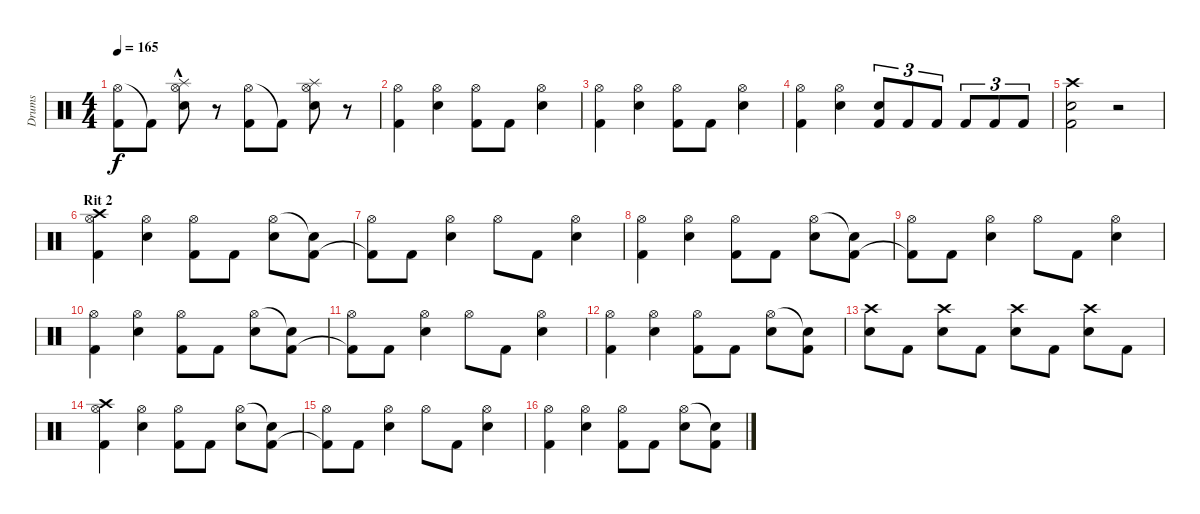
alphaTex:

\track ("Drums" "Drums") {instrument percussion}
\staff {score}
\articulation defaults
\ts (4 4)
\tempo 165
\clef neutral
\ks c
("Hi-Hat (open)" "Kick (hit) 2").8{dy f} "Kick (hit) 2"{t}.8 ("Splash (hit)" "Hi-Hat (open)" "Snare (hit) 2"{hac}).8 r.8 ("Hi-Hat (open)" "Kick (hit) 2").8 "Kick (hit) 2"{t}.8 ("Splash (hit)" "Hi-Hat (open)" "Snare (hit) 2").8 r.8 |
("Kick (hit) 2" "Hi-Hat (open)").4 ("Hi-Hat (open)" "Snare (hit) 2").4 ("Hi-Hat (open)" "Kick (hit) 2").8 "Kick (hit) 2".8 ("Hi-Hat (open)" "Snare (hit) 2").4 |
("Kick (hit) 2" "Hi-Hat (open)").4 ("Hi-Hat (open)" "Snare (hit) 2").4 ("Hi-Hat (open)" "Kick (hit) 2").8 "Kick (hit) 2".8 ("Hi-Hat (open)" "Snare (hit) 2").4 |
("Kick (hit) 2" "Hi-Hat (open)").4 ("Hi-Hat (open)" "Snare (hit) 2").4 ("Snare (hit) 2" "Kick (hit) 2").8{tu (3 2)} "Kick (hit) 2".8{tu (3 2)} "Kick (hit) 2".8{tu (3 2)} "Kick (hit) 2".8{tu (3 2)} "Kick (hit) 2".8{tu (3 2)} "Kick (hit) 2".8{tu (3 2)} |
("Crash high (hit)" "Snare (hit) 2" "Kick (hit) 2").2 r.2 |
\section ("" "Rit 2")
("Crash high (hit)" "Hi-Hat (open)" "Kick (hit) 2").4 ("Hi-Hat (open)" "Snare (hit) 2").4 ("Hi-Hat (open)" "Kick (hit) 2").8 "Kick (hit) 2".8 ("Hi-Hat (open)" "Snare (hit) 2").8 ("Snare (hit) 2"{t} "Kick (hit) 2").8 |
("Hi-Hat (open)" "Kick (hit) 2"{t}).8 "Kick (hit) 2".8 ("Hi-Hat (open)" "Snare (hit) 2").4 "Hi-Hat (open)".8 "Kick (hit) 2".8 ("Hi-Hat (open)" "Snare (hit) 2").4 |
("Hi-Hat (open)" "Kick (hit) 2").4 ("Hi-Hat (open)" "Snare (hit) 2").4 ("Hi-Hat (open)" "Kick (hit) 2").8 "Kick (hit) 2".8 ("Hi-Hat (open)" "Snare (hit) 2").8 ("Snare (hit) 2"{t} "Kick (hit) 2").8 |
("Hi-Hat (open)" "Kick (hit) 2"{t}).8 "Kick (hit) 2".8 ("Hi-Hat (open)" "Snare (hit) 2").4 "Hi-Hat (open)".8 "Kick (hit) 2".8 ("Hi-Hat (open)" "Snare (hit) 2").4 |
("Hi-Hat (open)" "Kick (hit) 2").4 ("Hi-Hat (open)" "Snare (hit) 2").4 ("Hi-Hat (open)" "Kick (hit) 2").8 "Kick (hit) 2".8 ("Hi-Hat (open)" "Snare (hit) 2").8 ("Snare (hit) 2"{t} "Kick (hit) 2").8 |
("Hi-Hat (open)" "Kick (hit) 2"{t}).8 "Kick (hit) 2".8 ("Hi-Hat (open)" "Snare (hit) 2").4 "Hi-Hat (open)".8 "Kick (hit) 2".8 ("Hi-Hat (open)" "Snare (hit) 2").4 |
("Hi-Hat (open)" "Kick (hit) 2").4 ("Hi-Hat (open)" "Snare (hit) 2").4 ("Hi-Hat (open)" "Kick (hit) 2").8 "Kick (hit) 2".8 ("Hi-Hat (open)" "Snare (hit) 2").8 ("Snare (hit) 2"{t} "Kick (hit) 2").8 |
("Crash high (hit)" "Snare (hit) 2").8 "Kick (hit) 2".8 ("Crash high (hit)" "Snare (hit) 2").8 "Kick (hit) 2".8 ("Crash high (hit)" "Snare (hit) 2").8 "Kick (hit) 2".8 ("Crash high (hit)" "Snare (hit) 2").8 "Kick (hit) 2".8 |
("Crash high (hit)" "Hi-Hat (open)" "Kick (hit) 2").4 ("Hi-Hat (open)" "Snare (hit) 2").4 ("Hi-Hat (open)" "Kick (hit) 2").8 "Kick (hit) 2".8 ("Hi-Hat (open)" "Snare (hit) 2").8 ("Snare (hit) 2"{t} "Kick (hit) 2").8 |
("Hi-Hat (open)" "Kick (hit) 2"{t}).8 "Kick (hit) 2".8 ("Hi-Hat (open)" "Snare (hit) 2").4 "Hi-Hat (open)".8 "Kick (hit) 2".8 ("Hi-Hat (open)" "Snare (hit) 2").4 |
("Hi-Hat (open)" "Kick (hit) 2").4 ("Hi-Hat (open)" "Snare (hit) 2").4 ("Hi-Hat (open)" "Kick (hit) 2").8 "Kick (hit) 2".8 ("Hi-Hat (open)" "Snare (hit) 2").8 ("Snare (hit) 2"{t} "Kick (hit) 2").8
